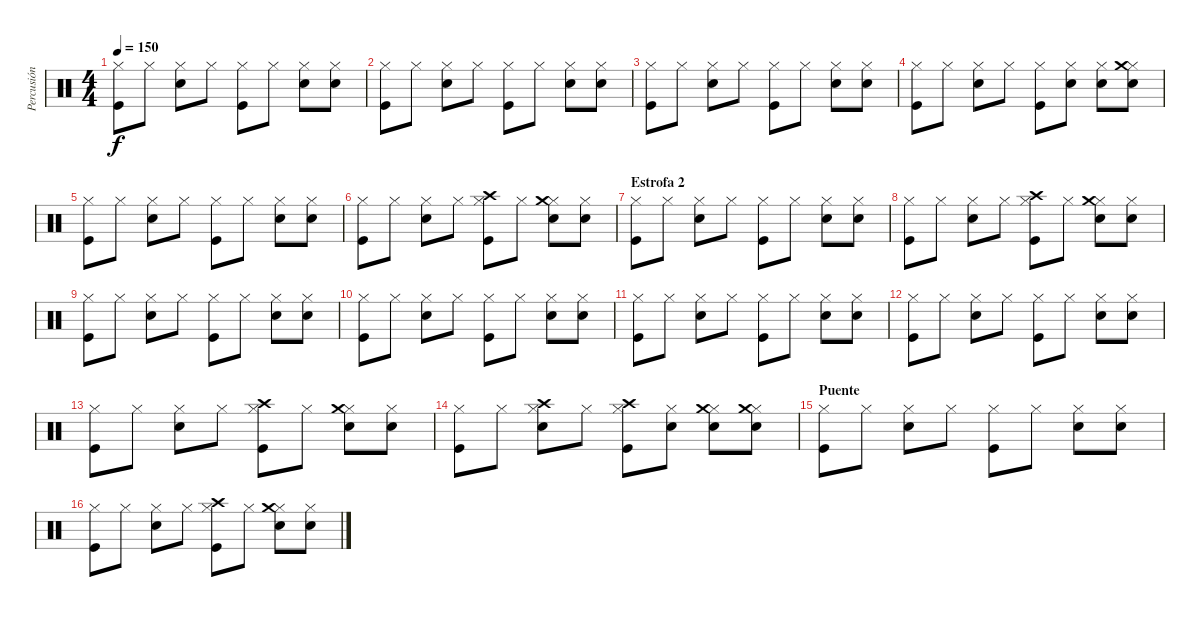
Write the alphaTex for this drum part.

\track ("Percusión" "Percusión") {instrument percussion}
\staff {score}
\articulation defaults
\ts (4 4)
\tempo 150
\clef neutral
\ks c
("Hi-Hat (closed)" "Kick (hit)").8{dy f} "Hi-Hat (closed)".8 ("Hi-Hat (closed)" "Snare (hit) 2").8 "Hi-Hat (closed)".8 ("Hi-Hat (closed)" "Kick (hit)").8 "Hi-Hat (closed)".8 ("Hi-Hat (closed)" "Snare (hit) 2").8 ("Hi-Hat (closed)" "Snare (hit) 2").8 |
("Hi-Hat (closed)" "Kick (hit)").8 "Hi-Hat (closed)".8 ("Hi-Hat (closed)" "Snare (hit) 2").8 "Hi-Hat (closed)".8 ("Hi-Hat (closed)" "Kick (hit)").8 "Hi-Hat (closed)".8 ("Hi-Hat (closed)" "Snare (hit) 2").8 ("Hi-Hat (closed)" "Snare (hit) 2").8 |
("Hi-Hat (closed)" "Kick (hit)").8 "Hi-Hat (closed)".8 ("Hi-Hat (closed)" "Snare (hit) 2").8 "Hi-Hat (closed)".8 ("Hi-Hat (closed)" "Kick (hit)").8 "Hi-Hat (closed)".8 ("Hi-Hat (closed)" "Snare (hit) 2").8 ("Hi-Hat (closed)" "Snare (hit) 2").8 |
("Hi-Hat (closed)" "Kick (hit)").8 "Hi-Hat (closed)".8 ("Hi-Hat (closed)" "Snare (hit) 2").8 "Hi-Hat (closed)".8 ("Hi-Hat (closed)" "Kick (hit)").8 ("Hi-Hat (closed)" "Snare (hit) 2").8 ("Hi-Hat (closed)" "Snare (hit) 2").8 ("Hi-Hat (closed)" "Snare (hit) 2" "Crash medium (hit)").8 |
("Hi-Hat (closed)" "Kick (hit)").8 "Hi-Hat (closed)".8 ("Hi-Hat (closed)" "Snare (hit) 2").8 "Hi-Hat (closed)".8 ("Hi-Hat (closed)" "Kick (hit)").8 "Hi-Hat (closed)".8 ("Hi-Hat (closed)" "Snare (hit) 2").8 ("Hi-Hat (closed)" "Snare (hit) 2").8 |
("Hi-Hat (closed)" "Kick (hit)").8 "Hi-Hat (closed)".8 ("Hi-Hat (closed)" "Snare (hit) 2").8 "Hi-Hat (closed)".8 ("Hi-Hat (closed)" "Kick (hit)" "Crash high (hit)").8 "Hi-Hat (closed)".8 ("Hi-Hat (closed)" "Snare (hit) 2" "Crash medium (hit)").8 ("Hi-Hat (closed)" "Snare (hit) 2").8 |
\section ("" "Estrofa 2")
("Hi-Hat (closed)" "Kick (hit)").8 "Hi-Hat (closed)".8 ("Hi-Hat (closed)" "Snare (hit) 2").8 "Hi-Hat (closed)".8 ("Hi-Hat (closed)" "Kick (hit)").8 "Hi-Hat (closed)".8 ("Hi-Hat (closed)" "Snare (hit) 2").8 ("Hi-Hat (closed)" "Snare (hit) 2").8 |
("Hi-Hat (closed)" "Kick (hit)").8 "Hi-Hat (closed)".8 ("Hi-Hat (closed)" "Snare (hit) 2").8 "Hi-Hat (closed)".8 ("Hi-Hat (closed)" "Kick (hit)" "Crash high (hit)").8 "Hi-Hat (closed)".8 ("Hi-Hat (closed)" "Snare (hit) 2" "Crash medium (hit)").8 ("Hi-Hat (closed)" "Snare (hit) 2").8 |
("Hi-Hat (closed)" "Kick (hit)").8 "Hi-Hat (closed)".8 ("Hi-Hat (closed)" "Snare (hit) 2").8 "Hi-Hat (closed)".8 ("Hi-Hat (closed)" "Kick (hit)").8 "Hi-Hat (closed)".8 ("Hi-Hat (closed)" "Snare (hit) 2").8 ("Hi-Hat (closed)" "Snare (hit) 2").8 |
("Hi-Hat (closed)" "Kick (hit)").8 "Hi-Hat (closed)".8 ("Hi-Hat (closed)" "Snare (hit) 2").8 "Hi-Hat (closed)".8 ("Hi-Hat (closed)" "Kick (hit)").8 "Hi-Hat (closed)".8 ("Hi-Hat (closed)" "Snare (hit) 2").8 ("Hi-Hat (closed)" "Snare (hit) 2").8 |
("Hi-Hat (closed)" "Kick (hit)").8 "Hi-Hat (closed)".8 ("Hi-Hat (closed)" "Snare (hit) 2").8 "Hi-Hat (closed)".8 ("Hi-Hat (closed)" "Kick (hit)").8 "Hi-Hat (closed)".8 ("Hi-Hat (closed)" "Snare (hit) 2").8 ("Hi-Hat (closed)" "Snare (hit) 2").8 |
("Hi-Hat (closed)" "Kick (hit)").8 "Hi-Hat (closed)".8 ("Hi-Hat (closed)" "Snare (hit) 2").8 "Hi-Hat (closed)".8 ("Hi-Hat (closed)" "Kick (hit)").8 "Hi-Hat (closed)".8 ("Hi-Hat (closed)" "Snare (hit) 2").8 ("Hi-Hat (closed)" "Snare (hit) 2").8 |
("Hi-Hat (closed)" "Kick (hit)").8 "Hi-Hat (closed)".8 ("Hi-Hat (closed)" "Snare (hit) 2").8 "Hi-Hat (closed)".8 ("Hi-Hat (closed)" "Kick (hit)" "Crash high (hit)").8 "Hi-Hat (closed)".8 ("Hi-Hat (closed)" "Snare (hit) 2" "Crash medium (hit)").8 ("Hi-Hat (closed)" "Snare (hit) 2").8 |
("Hi-Hat (closed)" "Kick (hit)").8 "Hi-Hat (closed)".8 ("Hi-Hat (closed)" "Snare (hit) 2" "Crash high (hit)").8 "Hi-Hat (closed)".8 ("Hi-Hat (closed)" "Kick (hit)" "Crash high (hit)").8 ("Hi-Hat (closed)" "Snare (hit) 2").8 ("Hi-Hat (closed)" "Snare (hit) 2" "Crash medium (hit)").8 ("Hi-Hat (closed)" "Snare (hit) 2" "Crash medium (hit)").8 |
\section ("" "Puente")
("Hi-Hat (closed)" "Kick (hit)").8 "Hi-Hat (closed)".8 ("Hi-Hat (closed)" "Snare (hit) 2").8 "Hi-Hat (closed)".8 ("Hi-Hat (closed)" "Kick (hit)").8 "Hi-Hat (closed)".8 ("Hi-Hat (closed)" "Snare (hit) 2").8 ("Hi-Hat (closed)" "Snare (hit) 2").8 |
("Hi-Hat (closed)" "Kick (hit)").8 "Hi-Hat (closed)".8 ("Hi-Hat (closed)" "Snare (hit) 2").8 "Hi-Hat (closed)".8 ("Hi-Hat (closed)" "Kick (hit)" "Crash high (hit)").8 "Hi-Hat (closed)".8 ("Hi-Hat (closed)" "Snare (hit) 2" "Crash medium (hit)").8 ("Hi-Hat (closed)" "Snare (hit) 2").8
